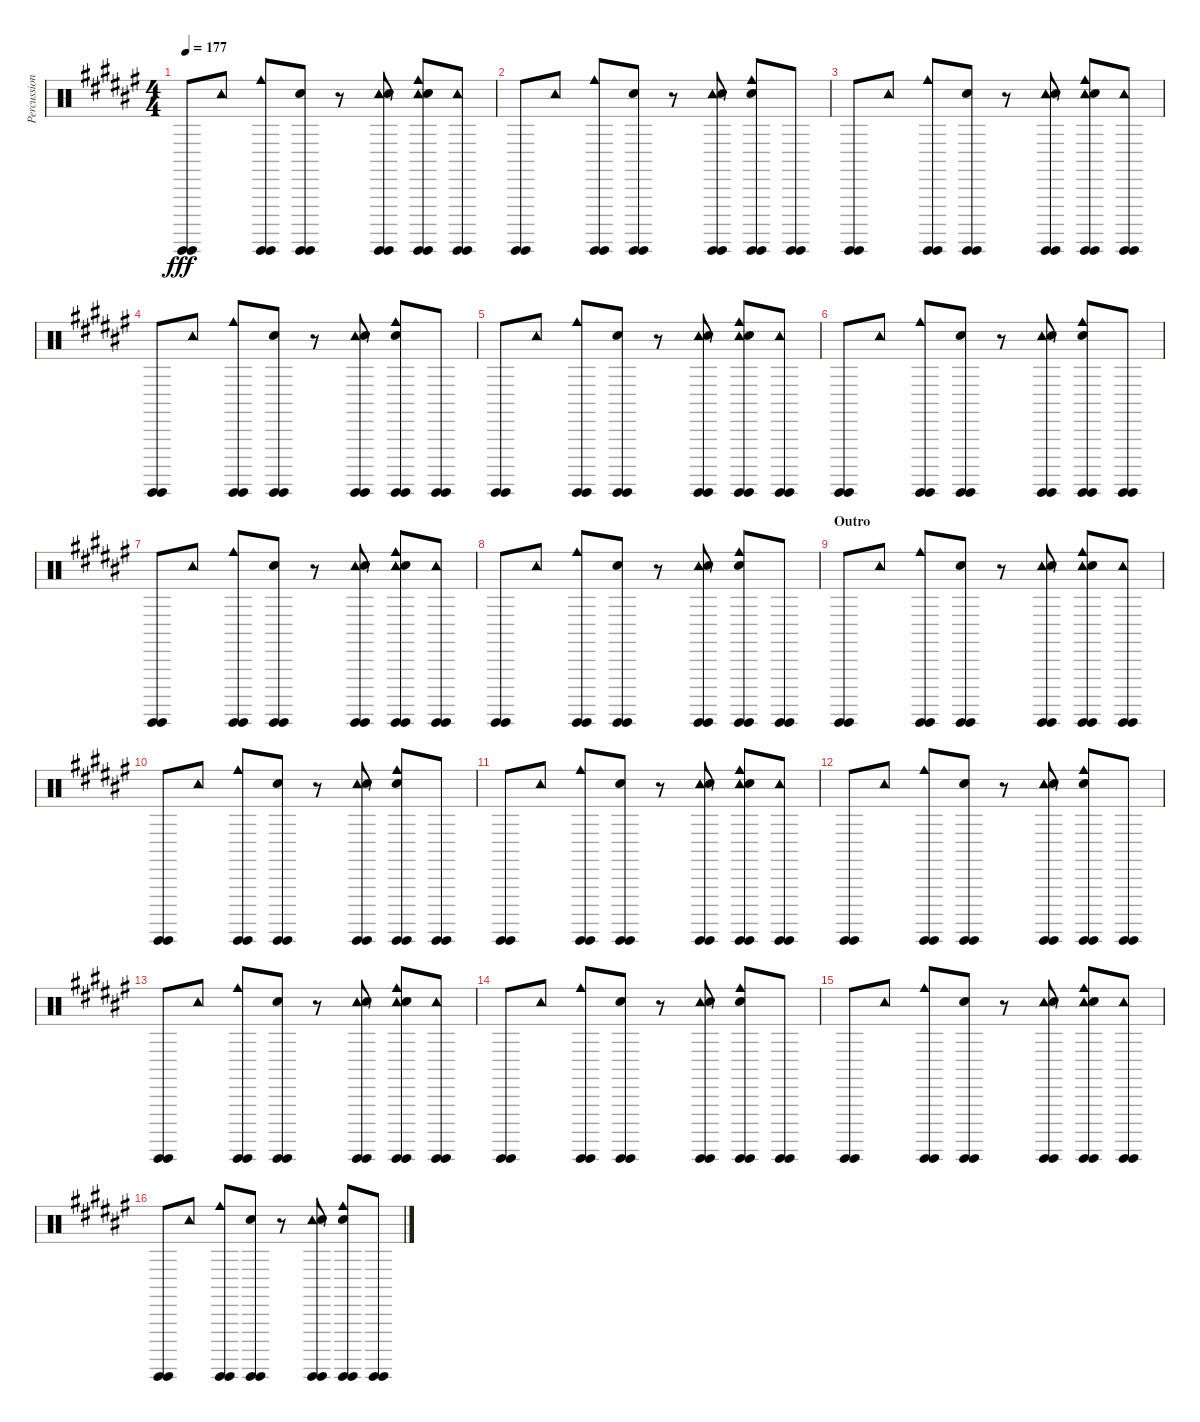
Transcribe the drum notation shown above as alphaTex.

\track ("Percussion" "Percussion") {instrument percussion}
\staff {score}
\articulation defaults
\ts (4 4)
\tempo 177
\clef neutral
\ks d#minor
("Guiro (hit)" "Guiro (hit)").8{dy fff} "Tambourine (hit)".8 ("Cowbell medium (hit)" "Guiro (hit)" "Guiro (hit)").8 ("Guiro (hit)" "Guiro (hit)" "Hand Clap (hit)").8 r.8 ("Tambourine (hit)" "Guiro (hit)" "Guiro (hit)" "Hand Clap (hit)").8 ("Cowbell medium (hit)" "Tambourine (hit)" "Guiro (hit)" "Guiro (hit)" "Hand Clap (hit)").8 ("Tambourine (hit)" "Guiro (hit)" "Guiro (hit)").8 |
("Guiro (hit)" "Guiro (hit)").8 "Tambourine (hit)".8 ("Cowbell medium (hit)" "Guiro (hit)" "Guiro (hit)").8 ("Guiro (hit)" "Guiro (hit)" "Hand Clap (hit)").8 r.8 ("Tambourine (hit)" "Guiro (hit)" "Guiro (hit)" "Hand Clap (hit)").8 ("Cowbell medium (hit)" "Guiro (hit)" "Guiro (hit)" "Hand Clap (hit)").8 ("Guiro (hit)" "Guiro (hit)").8 |
("Guiro (hit)" "Guiro (hit)").8 "Tambourine (hit)".8 ("Cowbell medium (hit)" "Guiro (hit)" "Guiro (hit)").8 ("Guiro (hit)" "Guiro (hit)" "Hand Clap (hit)").8 r.8 ("Tambourine (hit)" "Guiro (hit)" "Guiro (hit)" "Hand Clap (hit)").8 ("Cowbell medium (hit)" "Tambourine (hit)" "Guiro (hit)" "Guiro (hit)" "Hand Clap (hit)").8 ("Tambourine (hit)" "Guiro (hit)" "Guiro (hit)").8 |
("Guiro (hit)" "Guiro (hit)").8 "Tambourine (hit)".8 ("Cowbell medium (hit)" "Guiro (hit)" "Guiro (hit)").8 ("Guiro (hit)" "Guiro (hit)" "Hand Clap (hit)").8 r.8 ("Tambourine (hit)" "Guiro (hit)" "Guiro (hit)" "Hand Clap (hit)").8 ("Cowbell medium (hit)" "Guiro (hit)" "Guiro (hit)" "Hand Clap (hit)").8 ("Guiro (hit)" "Guiro (hit)").8 |
("Guiro (hit)" "Guiro (hit)").8 "Tambourine (hit)".8 ("Cowbell medium (hit)" "Guiro (hit)" "Guiro (hit)").8 ("Guiro (hit)" "Guiro (hit)" "Hand Clap (hit)").8 r.8 ("Tambourine (hit)" "Guiro (hit)" "Guiro (hit)" "Hand Clap (hit)").8 ("Cowbell medium (hit)" "Tambourine (hit)" "Guiro (hit)" "Guiro (hit)" "Hand Clap (hit)").8 ("Tambourine (hit)" "Guiro (hit)" "Guiro (hit)").8 |
("Guiro (hit)" "Guiro (hit)").8 "Tambourine (hit)".8 ("Cowbell medium (hit)" "Guiro (hit)" "Guiro (hit)").8 ("Guiro (hit)" "Guiro (hit)" "Hand Clap (hit)").8 r.8 ("Tambourine (hit)" "Guiro (hit)" "Guiro (hit)" "Hand Clap (hit)").8 ("Cowbell medium (hit)" "Guiro (hit)" "Guiro (hit)" "Hand Clap (hit)").8 ("Guiro (hit)" "Guiro (hit)").8 |
("Guiro (hit)" "Guiro (hit)").8 "Tambourine (hit)".8 ("Cowbell medium (hit)" "Guiro (hit)" "Guiro (hit)").8 ("Guiro (hit)" "Guiro (hit)" "Hand Clap (hit)").8 r.8 ("Tambourine (hit)" "Guiro (hit)" "Guiro (hit)" "Hand Clap (hit)").8 ("Cowbell medium (hit)" "Tambourine (hit)" "Guiro (hit)" "Guiro (hit)" "Hand Clap (hit)").8 ("Tambourine (hit)" "Guiro (hit)" "Guiro (hit)").8 |
("Guiro (hit)" "Guiro (hit)").8 "Tambourine (hit)".8 ("Cowbell medium (hit)" "Guiro (hit)" "Guiro (hit)").8 ("Guiro (hit)" "Guiro (hit)" "Hand Clap (hit)").8 r.8 ("Tambourine (hit)" "Guiro (hit)" "Guiro (hit)" "Hand Clap (hit)").8 ("Cowbell medium (hit)" "Guiro (hit)" "Guiro (hit)" "Hand Clap (hit)").8 ("Guiro (hit)" "Guiro (hit)").8 |
\section ("" "Outro")
("Guiro (hit)" "Guiro (hit)").8 "Tambourine (hit)".8 ("Cowbell medium (hit)" "Guiro (hit)" "Guiro (hit)").8 ("Guiro (hit)" "Guiro (hit)" "Hand Clap (hit)").8 r.8 ("Tambourine (hit)" "Guiro (hit)" "Guiro (hit)" "Hand Clap (hit)").8 ("Cowbell medium (hit)" "Tambourine (hit)" "Guiro (hit)" "Guiro (hit)" "Hand Clap (hit)").8 ("Tambourine (hit)" "Guiro (hit)" "Guiro (hit)").8 |
("Guiro (hit)" "Guiro (hit)").8 "Tambourine (hit)".8 ("Cowbell medium (hit)" "Guiro (hit)" "Guiro (hit)").8 ("Guiro (hit)" "Guiro (hit)" "Hand Clap (hit)").8 r.8 ("Tambourine (hit)" "Guiro (hit)" "Guiro (hit)" "Hand Clap (hit)").8 ("Cowbell medium (hit)" "Guiro (hit)" "Guiro (hit)" "Hand Clap (hit)").8 ("Guiro (hit)" "Guiro (hit)").8 |
("Guiro (hit)" "Guiro (hit)").8 "Tambourine (hit)".8 ("Cowbell medium (hit)" "Guiro (hit)" "Guiro (hit)").8 ("Guiro (hit)" "Guiro (hit)" "Hand Clap (hit)").8 r.8 ("Tambourine (hit)" "Guiro (hit)" "Guiro (hit)" "Hand Clap (hit)").8 ("Cowbell medium (hit)" "Tambourine (hit)" "Guiro (hit)" "Guiro (hit)" "Hand Clap (hit)").8 ("Tambourine (hit)" "Guiro (hit)" "Guiro (hit)").8 |
("Guiro (hit)" "Guiro (hit)").8 "Tambourine (hit)".8 ("Cowbell medium (hit)" "Guiro (hit)" "Guiro (hit)").8 ("Guiro (hit)" "Guiro (hit)" "Hand Clap (hit)").8 r.8 ("Tambourine (hit)" "Guiro (hit)" "Guiro (hit)" "Hand Clap (hit)").8 ("Cowbell medium (hit)" "Guiro (hit)" "Guiro (hit)" "Hand Clap (hit)").8 ("Guiro (hit)" "Guiro (hit)").8 |
("Guiro (hit)" "Guiro (hit)").8 "Tambourine (hit)".8 ("Cowbell medium (hit)" "Guiro (hit)" "Guiro (hit)").8 ("Guiro (hit)" "Guiro (hit)" "Hand Clap (hit)").8 r.8 ("Tambourine (hit)" "Guiro (hit)" "Guiro (hit)" "Hand Clap (hit)").8 ("Cowbell medium (hit)" "Tambourine (hit)" "Guiro (hit)" "Guiro (hit)" "Hand Clap (hit)").8 ("Tambourine (hit)" "Guiro (hit)" "Guiro (hit)").8 |
("Guiro (hit)" "Guiro (hit)").8 "Tambourine (hit)".8 ("Cowbell medium (hit)" "Guiro (hit)" "Guiro (hit)").8 ("Guiro (hit)" "Guiro (hit)" "Hand Clap (hit)").8 r.8 ("Tambourine (hit)" "Guiro (hit)" "Guiro (hit)" "Hand Clap (hit)").8 ("Cowbell medium (hit)" "Guiro (hit)" "Guiro (hit)" "Hand Clap (hit)").8 ("Guiro (hit)" "Guiro (hit)").8 |
("Guiro (hit)" "Guiro (hit)").8 "Tambourine (hit)".8 ("Cowbell medium (hit)" "Guiro (hit)" "Guiro (hit)").8 ("Guiro (hit)" "Guiro (hit)" "Hand Clap (hit)").8 r.8 ("Tambourine (hit)" "Guiro (hit)" "Guiro (hit)" "Hand Clap (hit)").8 ("Cowbell medium (hit)" "Tambourine (hit)" "Guiro (hit)" "Guiro (hit)" "Hand Clap (hit)").8 ("Tambourine (hit)" "Guiro (hit)" "Guiro (hit)").8 |
("Guiro (hit)" "Guiro (hit)").8 "Tambourine (hit)".8 ("Cowbell medium (hit)" "Guiro (hit)" "Guiro (hit)").8 ("Guiro (hit)" "Guiro (hit)" "Hand Clap (hit)").8 r.8 ("Tambourine (hit)" "Guiro (hit)" "Guiro (hit)" "Hand Clap (hit)").8 ("Cowbell medium (hit)" "Guiro (hit)" "Guiro (hit)" "Hand Clap (hit)").8 ("Guiro (hit)" "Guiro (hit)").8
